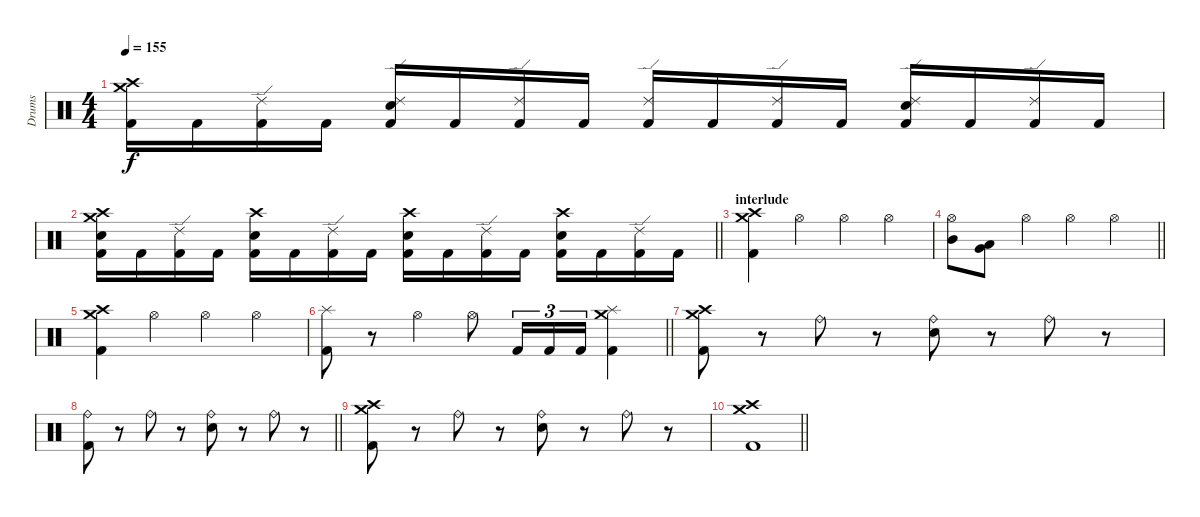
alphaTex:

\track ("Drums" "Drums") {instrument percussion}
\staff {score}
\articulation defaults
\ts (4 4)
\tempo 155
\clef neutral
\ks c
("Crash high (hit)" "Crash medium (hit)" "Kick (hit) 2").16{dy f} "Kick (hit) 2".16 ("Ride (edge) 2" "Kick (hit) 2").16 "Kick (hit) 2".16 ("Ride (edge) 2" "Electric Snare (hit)" "Kick (hit) 2").16 "Kick (hit) 2".16 ("Ride (edge) 2" "Kick (hit) 2").16 "Kick (hit) 2".16 ("Ride (edge) 2" "Kick (hit) 2").16 "Kick (hit) 2".16 ("Ride (edge) 2" "Kick (hit) 2").16 "Kick (hit) 2".16 ("Ride (edge) 2" "Electric Snare (hit)" "Kick (hit) 2").16 "Kick (hit) 2".16 ("Ride (edge) 2" "Kick (hit) 2").16 "Kick (hit) 2".16 |
\barLineRight lightlight
("Crash high (hit)" "Crash medium (hit)" "Electric Snare (hit)" "Kick (hit) 2").16 "Kick (hit) 2".16 ("Ride (edge) 2" "Kick (hit) 2").16 "Kick (hit) 2".16 ("Crash high (hit)" "Electric Snare (hit)" "Kick (hit) 2").16 "Kick (hit) 2".16 ("Ride (edge) 2" "Kick (hit) 2").16 "Kick (hit) 2".16 ("Crash high (hit)" "Electric Snare (hit)" "Kick (hit) 2").16 "Kick (hit) 2".16 ("Ride (edge) 2" "Kick (hit) 2").16 "Kick (hit) 2".16 ("Crash high (hit)" "Electric Snare (hit)" "Kick (hit) 2").16 "Kick (hit) 2".16 ("Ride (edge) 2" "Kick (hit) 2").16 "Kick (hit) 2".16 |
\section ("" "interlude")
("Crash medium (hit)" "Crash high (hit)" "Kick (hit) 2").4 "Hi-Hat (open)".4 "Hi-Hat (open)".4 "Hi-Hat (open)".4 |
\barLineRight lightlight
("Hi-Hat (open)" "Mid Tom (hit)").8 ("Very Low Tom (hit)" "Low Tom (hit)").8 "Hi-Hat (open)".4 "Hi-Hat (open)".4 "Hi-Hat (open)".4 |
("Crash medium (hit)" "Crash high (hit)" "Kick (hit) 2").4 "Hi-Hat (open)".4 "Hi-Hat (open)".4 "Hi-Hat (open)".4 |
\barLineRight lightlight
("Splash (hit)" "Kick (hit) 2").8 r.8 "Hi-Hat (open)".4 "Hi-Hat (open)".8 "Kick (hit) 2".16{tu (3 2)} "Kick (hit) 2".16{tu (3 2)} "Kick (hit) 2".16{tu (3 2)} ("Kick (hit) 2" "Crash medium (hit)" "Splash (hit)").4 |
("Crash medium (hit)" "Crash high (hit)" "Kick (hit) 2").8 r.8 "Ride (bell)".8 r.8 ("Ride (bell)" "Electric Snare (hit)").8 r.8 "Ride (bell)".8 r.8 |
\barLineRight lightlight
("Ride (bell)" "Kick (hit) 2").8 r.8 "Ride (bell)".8 r.8 ("Ride (bell)" "Electric Snare (hit)").8 r.8 "Ride (bell)".8 r.8 |
("Crash medium (hit)" "Crash high (hit)" "Kick (hit) 2").8 r.8 "Ride (bell)".8 r.8 ("Ride (bell)" "Electric Snare (hit)").8 r.8 "Ride (bell)".8 r.8 |
\barLineRight lightlight
("Crash medium (hit)" "Crash high (hit)" "Kick (hit) 2").1
